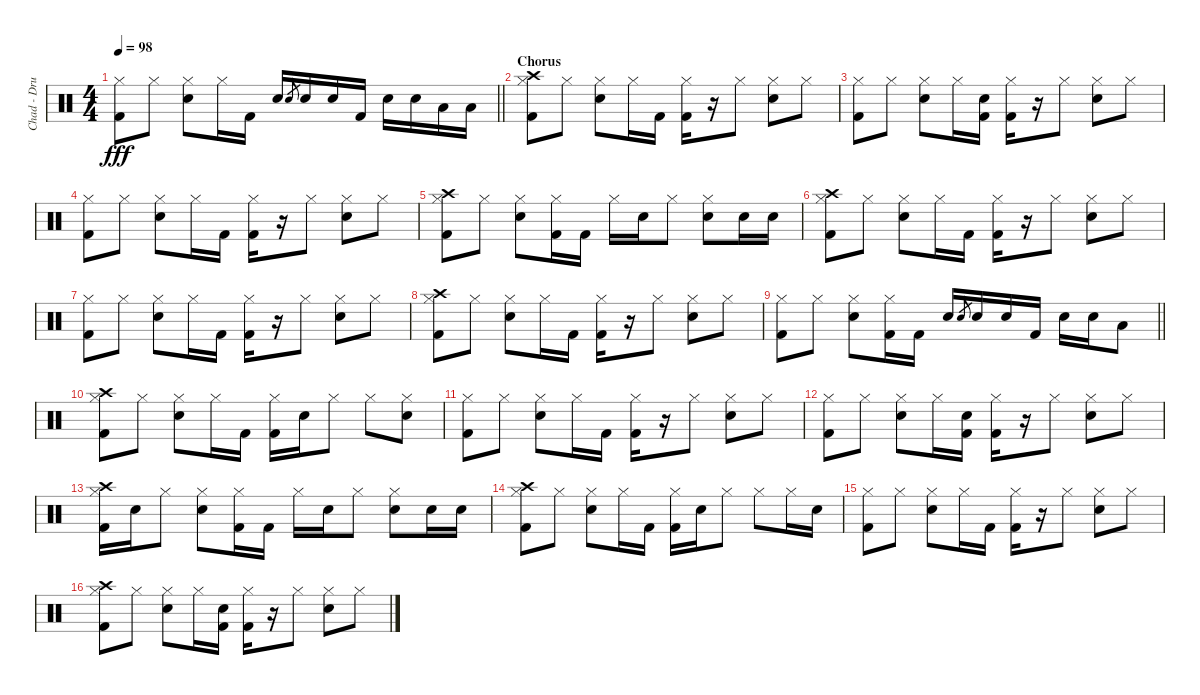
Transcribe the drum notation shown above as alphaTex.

\track ("Chad - Drums" "Chad - Dru") {instrument percussion}
\staff {score}
\articulation defaults
\ts (4 4)
\tempo 98
\clef neutral
\barLineRight lightlight
\ks c
("Hi-Hat (closed)" "Kick (hit) 2").8{dy fff} "Hi-Hat (closed)".8 ("Snare (hit) 2" "Hi-Hat (closed)").8 "Hi-Hat (closed)".16 "Kick (hit) 2".16 "Snare (hit) 2".16 "Snare (hit) 2".8{gr} "Snare (hit) 2".16 "Snare (hit) 2".16 "Kick (hit) 2".16 "Snare (hit) 2".16 "Snare (hit) 2".16 "Low Tom (hit)".16 "Low Tom (hit)".16 |
\section ("" "Chorus")
("Hi-Hat (closed)" "Crash high (hit)" "Kick (hit) 2").8 "Hi-Hat (closed)".8 ("Snare (hit) 2" "Hi-Hat (closed)").8 "Hi-Hat (closed)".16 "Kick (hit) 2".16 ("Hi-Hat (closed)" "Kick (hit) 2").16 r.16 "Hi-Hat (closed)".8 ("Snare (hit) 2" "Hi-Hat (closed)").8 "Hi-Hat (closed)".8 |
("Hi-Hat (closed)" "Kick (hit) 2").8 "Hi-Hat (closed)".8 ("Snare (hit) 2" "Hi-Hat (closed)").8 "Hi-Hat (closed)".16 ("Snare (hit) 2" "Kick (hit) 2").16 ("Hi-Hat (closed)" "Kick (hit) 2").16 r.16 "Hi-Hat (closed)".8 ("Snare (hit) 2" "Hi-Hat (closed)").8 "Hi-Hat (closed)".8 |
("Hi-Hat (closed)" "Kick (hit) 2").8 "Hi-Hat (closed)".8 ("Snare (hit) 2" "Hi-Hat (closed)").8 "Hi-Hat (closed)".16 "Kick (hit) 2".16 ("Hi-Hat (closed)" "Kick (hit) 2").16 r.16 "Hi-Hat (closed)".8 ("Snare (hit) 2" "Hi-Hat (closed)").8 "Hi-Hat (closed)".8 |
("Hi-Hat (closed)" "Crash high (hit)" "Kick (hit) 2").8 "Hi-Hat (closed)".8 ("Snare (hit) 2" "Hi-Hat (closed)").8 ("Hi-Hat (closed)" "Kick (hit) 2").16 "Kick (hit) 2".16 "Hi-Hat (closed)".16 "Snare (hit) 2".16 "Hi-Hat (closed)".8 ("Snare (hit) 2" "Hi-Hat (closed)").8 "Snare (hit) 2".16 "Snare (hit) 2".16 |
("Hi-Hat (closed)" "Crash high (hit)" "Kick (hit) 2").8 "Hi-Hat (closed)".8 ("Snare (hit) 2" "Hi-Hat (closed)").8 "Hi-Hat (closed)".16 "Kick (hit) 2".16 ("Hi-Hat (closed)" "Kick (hit) 2").16 r.16 "Hi-Hat (closed)".8 ("Snare (hit) 2" "Hi-Hat (closed)").8 "Hi-Hat (closed)".8 |
("Hi-Hat (closed)" "Kick (hit) 2").8 "Hi-Hat (closed)".8 ("Snare (hit) 2" "Hi-Hat (closed)").8 "Hi-Hat (closed)".16 "Kick (hit) 2".16 ("Hi-Hat (closed)" "Kick (hit) 2").16 r.16 "Hi-Hat (closed)".8 ("Snare (hit) 2" "Hi-Hat (closed)").8 "Hi-Hat (closed)".8 |
("Hi-Hat (closed)" "Crash high (hit)" "Kick (hit) 2").8 "Hi-Hat (closed)".8 ("Snare (hit) 2" "Hi-Hat (closed)").8 "Hi-Hat (closed)".16 "Kick (hit) 2".16 ("Hi-Hat (closed)" "Kick (hit) 2").16 r.16 "Hi-Hat (closed)".8 ("Snare (hit) 2" "Hi-Hat (closed)").8 "Hi-Hat (closed)".8 |
\barLineRight lightlight
("Hi-Hat (closed)" "Kick (hit) 2").8 "Hi-Hat (closed)".8 ("Snare (hit) 2" "Hi-Hat (closed)").8 ("Hi-Hat (closed)" "Kick (hit) 2").16 "Kick (hit) 2".16 "Snare (hit) 2".16 "Snare (hit) 2".8{gr} "Snare (hit) 2".16 "Snare (hit) 2".16 "Kick (hit) 2".16 "Snare (hit) 2".16 "Snare (hit) 2".16 "Low Tom (hit)".8 |
("Hi-Hat (closed)" "Crash high (hit)" "Kick (hit) 2").8 "Hi-Hat (closed)".8 ("Snare (hit) 2" "Hi-Hat (closed)").8 "Hi-Hat (closed)".16 "Kick (hit) 2".16 ("Hi-Hat (closed)" "Kick (hit) 2").16 "Snare (hit) 2".16 "Hi-Hat (closed)".8 "Hi-Hat (closed)".8 ("Snare (hit) 2" "Hi-Hat (closed)").8 |
("Hi-Hat (closed)" "Kick (hit) 2").8 "Hi-Hat (closed)".8 ("Snare (hit) 2" "Hi-Hat (closed)").8 "Hi-Hat (closed)".16 "Kick (hit) 2".16 ("Hi-Hat (closed)" "Kick (hit) 2").16 r.16 "Hi-Hat (closed)".8 ("Snare (hit) 2" "Hi-Hat (closed)").8 "Hi-Hat (closed)".8 |
("Hi-Hat (closed)" "Kick (hit) 2").8 "Hi-Hat (closed)".8 ("Snare (hit) 2" "Hi-Hat (closed)").8 "Hi-Hat (closed)".16 ("Snare (hit) 2" "Kick (hit) 2").16 ("Hi-Hat (closed)" "Kick (hit) 2").16 r.16 "Hi-Hat (closed)".8 ("Snare (hit) 2" "Hi-Hat (closed)").8 "Hi-Hat (closed)".8 |
("Hi-Hat (closed)" "Crash high (hit)" "Kick (hit) 2").16 "Snare (hit) 2".16 "Hi-Hat (closed)".8 ("Snare (hit) 2" "Hi-Hat (closed)").8 ("Hi-Hat (closed)" "Kick (hit) 2").16 "Kick (hit) 2".16 "Hi-Hat (closed)".16 "Snare (hit) 2".16 "Hi-Hat (closed)".8 ("Snare (hit) 2" "Hi-Hat (closed)").8 "Snare (hit) 2".16 "Snare (hit) 2".16 |
("Hi-Hat (closed)" "Crash high (hit)" "Kick (hit) 2").8 "Hi-Hat (closed)".8 ("Snare (hit) 2" "Hi-Hat (closed)").8 "Hi-Hat (closed)".16 "Kick (hit) 2".16 ("Hi-Hat (closed)" "Kick (hit) 2").16 "Snare (hit) 2".16 "Hi-Hat (closed)".8 "Hi-Hat (closed)".8 "Hi-Hat (closed)".16 "Snare (hit) 2".16 |
("Hi-Hat (closed)" "Kick (hit) 2").8 "Hi-Hat (closed)".8 ("Snare (hit) 2" "Hi-Hat (closed)").8 "Hi-Hat (closed)".16 "Kick (hit) 2".16 ("Hi-Hat (closed)" "Kick (hit) 2").16 r.16 "Hi-Hat (closed)".8 ("Snare (hit) 2" "Hi-Hat (closed)").8 "Hi-Hat (closed)".8 |
("Hi-Hat (closed)" "Crash high (hit)" "Kick (hit) 2").8 "Hi-Hat (closed)".8 ("Snare (hit) 2" "Hi-Hat (closed)").8 "Hi-Hat (closed)".16 ("Snare (hit) 2" "Kick (hit) 2").16 ("Hi-Hat (closed)" "Kick (hit) 2").16 r.16 "Hi-Hat (closed)".8 ("Snare (hit) 2" "Hi-Hat (closed)").8 "Hi-Hat (closed)".8
